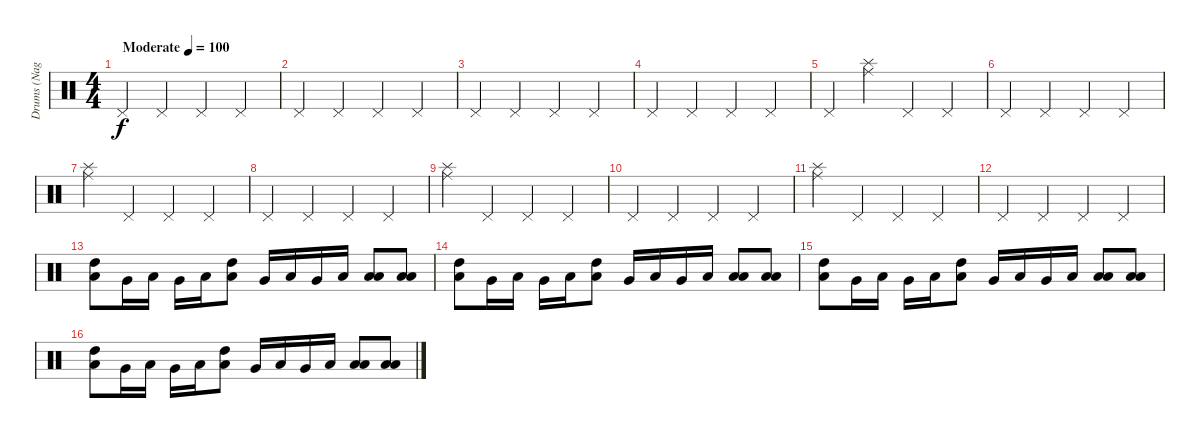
\track ("Drums (Nagy Dávid)" "Drums (Nag") {instrument percussion}
\staff {score}
\articulation defaults
\ts (4 4)
\tempo (100 "Moderate")
\clef neutral
\ks c "Pedal Hi-Hat (hit)".4{dy f} "Pedal Hi-Hat (hit)".4 "Pedal Hi-Hat (hit)".4 "Pedal Hi-Hat (hit)".4
|
"Pedal Hi-Hat (hit)".4 "Pedal Hi-Hat (hit)".4 "Pedal Hi-Hat (hit)".4 "Pedal Hi-Hat (hit)".4 |
"Pedal Hi-Hat (hit)".4 "Pedal Hi-Hat (hit)".4 "Pedal Hi-Hat (hit)".4 "Pedal Hi-Hat (hit)".4 |
"Pedal Hi-Hat (hit)".4 "Pedal Hi-Hat (hit)".4 "Pedal Hi-Hat (hit)".4 "Pedal Hi-Hat (hit)".4 |
"Pedal Hi-Hat (hit)".4 ("Ride (middle)" "Splash (hit)").4 "Pedal Hi-Hat (hit)".4 "Pedal Hi-Hat (hit)".4 |
"Pedal Hi-Hat (hit)".4 "Pedal Hi-Hat (hit)".4 "Pedal Hi-Hat (hit)".4 "Pedal Hi-Hat (hit)".4 |
("Ride (middle)" "Splash (hit)").4 "Pedal Hi-Hat (hit)".4 "Pedal Hi-Hat (hit)".4 "Pedal Hi-Hat (hit)".4 |
"Pedal Hi-Hat (hit)".4 "Pedal Hi-Hat (hit)".4 "Pedal Hi-Hat (hit)".4 "Pedal Hi-Hat (hit)".4 |
("Ride (middle)" "Splash (hit)").4 "Pedal Hi-Hat (hit)".4 "Pedal Hi-Hat (hit)".4 "Pedal Hi-Hat (hit)".4 |
"Pedal Hi-Hat (hit)".4 "Pedal Hi-Hat (hit)".4 "Pedal Hi-Hat (hit)".4 "Pedal Hi-Hat (hit)".4 |
("Ride (middle)" "Splash (hit)").4 "Pedal Hi-Hat (hit)".4 "Pedal Hi-Hat (hit)".4 "Pedal Hi-Hat (hit)".4 |
"Pedal Hi-Hat (hit)".4 "Pedal Hi-Hat (hit)".4 "Pedal Hi-Hat (hit)".4 "Pedal Hi-Hat (hit)".4 |
("High Tom (hit)" "Low Tom (hit)").8 "Very Low Tom (hit)".16 "Low Tom (hit)".16 "Very Low Tom (hit)".16 "Low Floor Tom (hit)".16 ("Low Tom (hit)" "High Tom (hit)").8 "Very Low Tom (hit)".16 "Low Tom (hit)".16 "Very Low Tom (hit)".16 "Low Floor Tom (hit)".16 ("Low Tom (hit)" "Low Floor Tom (hit)").8 ("Low Tom (hit)" "Low Floor Tom (hit)").8 |
("High Tom (hit)" "Low Tom (hit)").8 "Very Low Tom (hit)".16 "Low Tom (hit)".16 "Very Low Tom (hit)".16 "Low Floor Tom (hit)".16 ("Low Tom (hit)" "High Tom (hit)").8 "Very Low Tom (hit)".16 "Low Tom (hit)".16 "Very Low Tom (hit)".16 "Low Floor Tom (hit)".16 ("Low Tom (hit)" "Low Floor Tom (hit)").8 ("Low Tom (hit)" "Low Floor Tom (hit)").8 |
("High Tom (hit)" "Low Tom (hit)").8 "Very Low Tom (hit)".16 "Low Tom (hit)".16 "Very Low Tom (hit)".16 "Low Floor Tom (hit)".16 ("Low Tom (hit)" "High Tom (hit)").8 "Very Low Tom (hit)".16 "Low Tom (hit)".16 "Very Low Tom (hit)".16 "Low Floor Tom (hit)".16 ("Low Tom (hit)" "Low Floor Tom (hit)").8 ("Low Tom (hit)" "Low Floor Tom (hit)").8 |
("High Tom (hit)" "Low Tom (hit)").8 "Very Low Tom (hit)".16 "Low Tom (hit)".16 "Very Low Tom (hit)".16 "Low Floor Tom (hit)".16 ("Low Tom (hit)" "High Tom (hit)").8 "Very Low Tom (hit)".16 "Low Tom (hit)".16 "Very Low Tom (hit)".16 "Low Floor Tom (hit)".16 ("Low Tom (hit)" "Low Floor Tom (hit)").8 ("Low Tom (hit)" "Low Floor Tom (hit)").8
